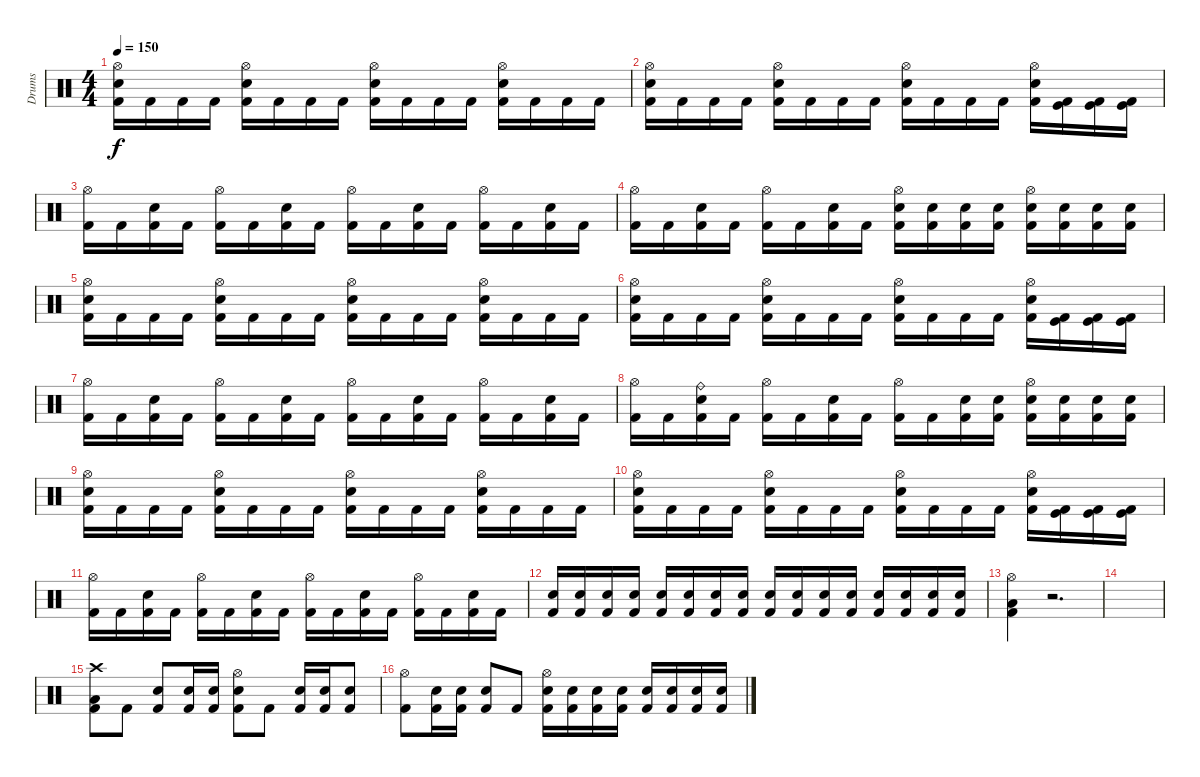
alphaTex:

\track ("Drums" "Drums") {instrument percussion}
\staff {score}
\articulation defaults
\ts (4 4)
\tempo 150
\clef neutral
\ks c
("Hi-Hat (open)" "Electric Snare (hit)" "Kick (hit) 2").16{dy f} "Kick (hit) 2".16 "Kick (hit) 2".16 "Kick (hit) 2".16 ("Hi-Hat (open)" "Electric Snare (hit)" "Kick (hit) 2").16 "Kick (hit) 2".16 "Kick (hit) 2".16 "Kick (hit) 2".16 ("Hi-Hat (open)" "Electric Snare (hit)" "Kick (hit) 2").16 "Kick (hit) 2".16 "Kick (hit) 2".16 "Kick (hit) 2".16 ("Hi-Hat (open)" "Electric Snare (hit)" "Kick (hit) 2").16 "Kick (hit) 2".16 "Kick (hit) 2".16 "Kick (hit) 2".16 |
("Hi-Hat (open)" "Electric Snare (hit)" "Kick (hit) 2").16 "Kick (hit) 2".16 "Kick (hit) 2".16 "Kick (hit) 2".16 ("Hi-Hat (open)" "Electric Snare (hit)" "Kick (hit) 2").16 "Kick (hit) 2".16 "Kick (hit) 2".16 "Kick (hit) 2".16 ("Hi-Hat (open)" "Electric Snare (hit)" "Kick (hit) 2").16 "Kick (hit) 2".16 "Kick (hit) 2".16 "Kick (hit) 2".16 ("Hi-Hat (open)" "Electric Snare (hit)" "Kick (hit) 2").16 ("Kick (hit)" "Kick (hit) 2").16 ("Kick (hit)" "Kick (hit) 2").16 ("Kick (hit)" "Kick (hit) 2").16 |
("Hi-Hat (open)" "Kick (hit) 2").16 "Kick (hit) 2".16 ("Electric Snare (hit)" "Kick (hit) 2").16 "Kick (hit) 2".16 ("Hi-Hat (open)" "Kick (hit) 2").16 "Kick (hit) 2".16 ("Electric Snare (hit)" "Kick (hit) 2").16 "Kick (hit) 2".16 ("Hi-Hat (open)" "Kick (hit) 2").16 "Kick (hit) 2".16 ("Electric Snare (hit)" "Kick (hit) 2").16 "Kick (hit) 2".16 ("Hi-Hat (open)" "Kick (hit) 2").16 "Kick (hit) 2".16 ("Electric Snare (hit)" "Kick (hit) 2").16 "Kick (hit) 2".16 |
("Hi-Hat (open)" "Kick (hit) 2").16 "Kick (hit) 2".16 ("Electric Snare (hit)" "Kick (hit) 2").16 "Kick (hit) 2".16 ("Hi-Hat (open)" "Kick (hit) 2").16 "Kick (hit) 2".16 ("Electric Snare (hit)" "Kick (hit) 2").16 "Kick (hit) 2".16 ("Hi-Hat (open)" "Snare (hit) 2" "Kick (hit) 2").16 ("Snare (hit) 2" "Kick (hit) 2").16 ("Snare (hit) 2" "Kick (hit) 2").16 ("Snare (hit) 2" "Kick (hit) 2").16 ("Hi-Hat (open)" "Snare (hit) 2" "Kick (hit) 2").16 ("Snare (hit) 2" "Kick (hit) 2").16 ("Snare (hit) 2" "Kick (hit) 2").16 ("Snare (hit) 2" "Kick (hit) 2").16 |
("Hi-Hat (open)" "Electric Snare (hit)" "Kick (hit) 2").16 "Kick (hit) 2".16 "Kick (hit) 2".16 "Kick (hit) 2".16 ("Hi-Hat (open)" "Electric Snare (hit)" "Kick (hit) 2").16 "Kick (hit) 2".16 "Kick (hit) 2".16 "Kick (hit) 2".16 ("Hi-Hat (open)" "Electric Snare (hit)" "Kick (hit) 2").16 "Kick (hit) 2".16 "Kick (hit) 2".16 "Kick (hit) 2".16 ("Hi-Hat (open)" "Electric Snare (hit)" "Kick (hit) 2").16 "Kick (hit) 2".16 "Kick (hit) 2".16 "Kick (hit) 2".16 |
("Hi-Hat (open)" "Electric Snare (hit)" "Kick (hit) 2").16 "Kick (hit) 2".16 "Kick (hit) 2".16 "Kick (hit) 2".16 ("Hi-Hat (open)" "Electric Snare (hit)" "Kick (hit) 2").16 "Kick (hit) 2".16 "Kick (hit) 2".16 "Kick (hit) 2".16 ("Hi-Hat (open)" "Electric Snare (hit)" "Kick (hit) 2").16 "Kick (hit) 2".16 "Kick (hit) 2".16 "Kick (hit) 2".16 ("Hi-Hat (open)" "Electric Snare (hit)" "Kick (hit) 2").16 ("Kick (hit)" "Kick (hit) 2").16 ("Kick (hit)" "Kick (hit) 2").16 ("Kick (hit)" "Kick (hit) 2").16 |
("Hi-Hat (open)" "Kick (hit) 2").16 "Kick (hit) 2".16 ("Electric Snare (hit)" "Kick (hit) 2").16 "Kick (hit) 2".16 ("Hi-Hat (open)" "Kick (hit) 2").16 "Kick (hit) 2".16 ("Electric Snare (hit)" "Kick (hit) 2").16 "Kick (hit) 2".16 ("Hi-Hat (open)" "Kick (hit) 2").16 "Kick (hit) 2".16 ("Electric Snare (hit)" "Kick (hit) 2").16 "Kick (hit) 2".16 ("Hi-Hat (open)" "Kick (hit) 2").16 "Kick (hit) 2".16 ("Electric Snare (hit)" "Kick (hit) 2").16 "Kick (hit) 2".16 |
("Hi-Hat (open)" "Kick (hit) 2").16 "Kick (hit) 2".16 ("Ride (bell)" "Electric Snare (hit)" "Kick (hit) 2").16 "Kick (hit) 2".16 ("Hi-Hat (open)" "Kick (hit) 2").16 "Kick (hit) 2".16 ("Electric Snare (hit)" "Kick (hit) 2").16 "Kick (hit) 2".16 ("Hi-Hat (open)" "Kick (hit) 2").16 "Kick (hit) 2".16 ("Snare (hit) 2" "Kick (hit) 2").16 ("Snare (hit) 2" "Kick (hit) 2").16 ("Hi-Hat (open)" "Snare (hit) 2" "Kick (hit) 2").16 ("Snare (hit) 2" "Kick (hit) 2").16 ("Snare (hit) 2" "Kick (hit) 2").16 ("Snare (hit) 2" "Kick (hit) 2").16 |
("Hi-Hat (open)" "Electric Snare (hit)" "Kick (hit) 2").16 "Kick (hit) 2".16 "Kick (hit) 2".16 "Kick (hit) 2".16 ("Hi-Hat (open)" "Electric Snare (hit)" "Kick (hit) 2").16 "Kick (hit) 2".16 "Kick (hit) 2".16 "Kick (hit) 2".16 ("Hi-Hat (open)" "Electric Snare (hit)" "Kick (hit) 2").16 "Kick (hit) 2".16 "Kick (hit) 2".16 "Kick (hit) 2".16 ("Hi-Hat (open)" "Electric Snare (hit)" "Kick (hit) 2").16 "Kick (hit) 2".16 "Kick (hit) 2".16 "Kick (hit) 2".16 |
("Hi-Hat (open)" "Electric Snare (hit)" "Kick (hit) 2").16 "Kick (hit) 2".16 "Kick (hit) 2".16 "Kick (hit) 2".16 ("Hi-Hat (open)" "Electric Snare (hit)" "Kick (hit) 2").16 "Kick (hit) 2".16 "Kick (hit) 2".16 "Kick (hit) 2".16 ("Hi-Hat (open)" "Electric Snare (hit)" "Kick (hit) 2").16 "Kick (hit) 2".16 "Kick (hit) 2".16 "Kick (hit) 2".16 ("Hi-Hat (open)" "Electric Snare (hit)" "Kick (hit) 2").16 ("Kick (hit)" "Kick (hit) 2").16 ("Kick (hit)" "Kick (hit) 2").16 ("Kick (hit)" "Kick (hit) 2").16 |
("Hi-Hat (open)" "Kick (hit) 2").16 "Kick (hit) 2".16 ("Electric Snare (hit)" "Kick (hit) 2").16 "Kick (hit) 2".16 ("Hi-Hat (open)" "Kick (hit) 2").16 "Kick (hit) 2".16 ("Electric Snare (hit)" "Kick (hit) 2").16 "Kick (hit) 2".16 ("Hi-Hat (open)" "Kick (hit) 2").16 "Kick (hit) 2".16 ("Electric Snare (hit)" "Kick (hit) 2").16 "Kick (hit) 2".16 ("Hi-Hat (open)" "Kick (hit) 2").16 "Kick (hit) 2".16 ("Electric Snare (hit)" "Kick (hit) 2").16 "Kick (hit) 2".16 |
("Snare (hit) 2" "Kick (hit) 2").16 ("Snare (hit) 2" "Kick (hit) 2").16 ("Snare (hit) 2" "Kick (hit) 2").16 ("Snare (hit) 2" "Kick (hit) 2").16 ("Snare (hit) 2" "Kick (hit) 2").16 ("Snare (hit) 2" "Kick (hit) 2").16 ("Snare (hit) 2" "Kick (hit) 2").16 ("Snare (hit) 2" "Kick (hit) 2").16 ("Snare (hit) 2" "Kick (hit) 2").16 ("Snare (hit) 2" "Kick (hit) 2").16 ("Snare (hit) 2" "Kick (hit) 2").16 ("Snare (hit) 2" "Kick (hit) 2").16 ("Snare (hit) 2" "Kick (hit) 2").16 ("Snare (hit) 2" "Kick (hit) 2").16 ("Snare (hit) 2" "Kick (hit) 2").16 ("Snare (hit) 2" "Kick (hit) 2").16 |
("Hi-Hat (open)" "Low Floor Tom (hit)" "Kick (hit) 2").4 r.2{d} |
|
("Crash high (hit)" "Low Floor Tom (hit)" "Kick (hit) 2").8 "Kick (hit) 2".8 ("Snare (hit) 2" "Kick (hit) 2").8 ("Snare (hit) 2" "Kick (hit) 2").16 ("Snare (hit) 2" "Kick (hit) 2").16 ("Hi-Hat (open)" "Snare (hit) 2" "Kick (hit) 2").8 "Kick (hit) 2".8 ("Snare (hit) 2" "Kick (hit) 2").16 ("Snare (hit) 2" "Kick (hit) 2").16 ("Snare (hit) 2" "Kick (hit) 2").8 |
("Hi-Hat (open)" "Kick (hit) 2").8 ("Snare (hit) 2" "Kick (hit) 2").16 ("Snare (hit) 2" "Kick (hit) 2").16 ("Snare (hit) 2" "Kick (hit) 2").8 "Kick (hit) 2".8 ("Hi-Hat (open)" "Snare (hit) 2" "Kick (hit) 2").16 ("Snare (hit) 2" "Kick (hit) 2").16 ("Snare (hit) 2" "Kick (hit) 2").16 ("Snare (hit) 2" "Kick (hit) 2").16 ("Snare (hit) 2" "Kick (hit) 2").16 ("Snare (hit) 2" "Kick (hit) 2").16 ("Snare (hit) 2" "Kick (hit) 2").16 ("Snare (hit) 2" "Kick (hit) 2").16
